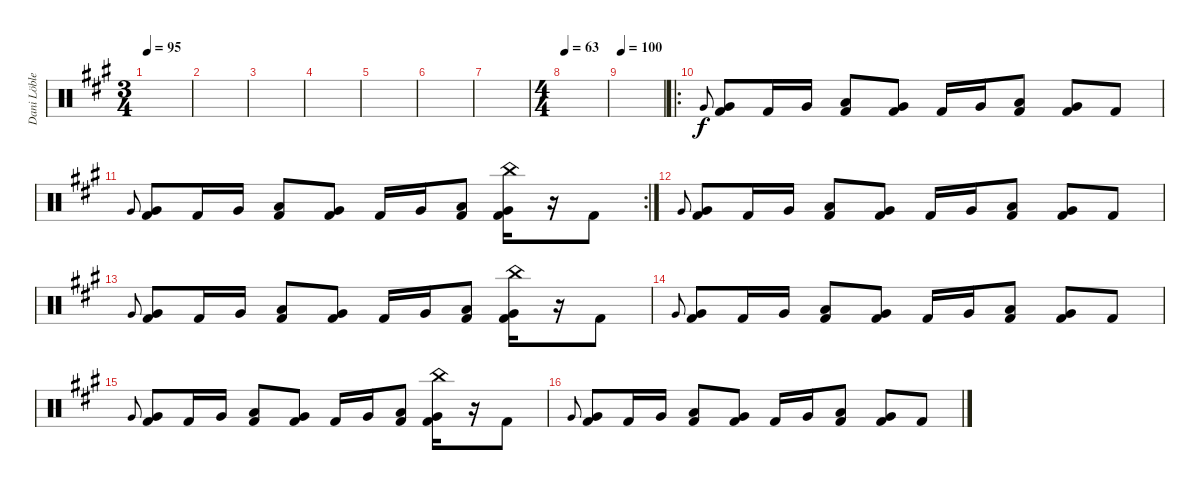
\track ("Dani Löble" "Dani Löble") {instrument percussion}
\staff {score}
\articulation defaults
\ts (3 4)
\tempo 95
\clef neutral
\ks f#minor
|
|
|
|
|
|
|
\ts (4 4)
\tempo 63
|
\tempo 100
|
\ro "Very Low Tom (hit)".8{gr onbeat}
("Very Low Tom (hit)" "Kick (hit) 2").8 "Kick (hit) 2".16 "Very Low Tom (hit)".16 ("Low Floor Tom (hit)" "Kick (hit) 2").8 ("Very Low Tom (hit)" "Kick (hit) 2").8 "Kick (hit) 2".16 "Very Low Tom (hit)".16 ("Low Floor Tom (hit)" "Kick (hit) 2").8 ("Very Low Tom (hit)" "Kick (hit) 2").8 "Kick (hit) 2".8 |
\rc 2 "Very Low Tom (hit)".8{gr onbeat}
("Very Low Tom (hit)" "Kick (hit) 2").8 "Kick (hit) 2".16 "Very Low Tom (hit)".16 ("Low Floor Tom (hit)" "Kick (hit) 2").8 ("Very Low Tom (hit)" "Kick (hit) 2").8 "Kick (hit) 2".16 "Very Low Tom (hit)".16 ("Low Floor Tom (hit)" "Kick (hit) 2").8 ("China (hit)" "Very Low Tom (hit)" "Kick (hit) 2").16 r.16 "Kick (hit) 2".8 |
"Very Low Tom (hit)".8{gr onbeat} ("Very Low Tom (hit)" "Kick (hit) 2").8 "Kick (hit) 2".16 "Very Low Tom (hit)".16 ("Low Floor Tom (hit)" "Kick (hit) 2").8 ("Very Low Tom (hit)" "Kick (hit) 2").8 "Kick (hit) 2".16 "Very Low Tom (hit)".16 ("Low Floor Tom (hit)" "Kick (hit) 2").8 ("Very Low Tom (hit)" "Kick (hit) 2").8 "Kick (hit) 2".8 |
"Very Low Tom (hit)".8{gr onbeat} ("Very Low Tom (hit)" "Kick (hit) 2").8 "Kick (hit) 2".16 "Very Low Tom (hit)".16 ("Low Floor Tom (hit)" "Kick (hit) 2").8 ("Very Low Tom (hit)" "Kick (hit) 2").8 "Kick (hit) 2".16 "Very Low Tom (hit)".16 ("Low Floor Tom (hit)" "Kick (hit) 2").8 ("China (hit)" "Very Low Tom (hit)" "Kick (hit) 2").16 r.16 "Kick (hit) 2".8 |
"Very Low Tom (hit)".8{gr onbeat} ("Very Low Tom (hit)" "Kick (hit) 2").8 "Kick (hit) 2".16 "Very Low Tom (hit)".16 ("Low Floor Tom (hit)" "Kick (hit) 2").8 ("Very Low Tom (hit)" "Kick (hit) 2").8 "Kick (hit) 2".16 "Very Low Tom (hit)".16 ("Low Floor Tom (hit)" "Kick (hit) 2").8 ("Very Low Tom (hit)" "Kick (hit) 2").8 "Kick (hit) 2".8 |
"Very Low Tom (hit)".8{gr onbeat} ("Very Low Tom (hit)" "Kick (hit) 2").8 "Kick (hit) 2".16 "Very Low Tom (hit)".16 ("Low Floor Tom (hit)" "Kick (hit) 2").8 ("Very Low Tom (hit)" "Kick (hit) 2").8 "Kick (hit) 2".16 "Very Low Tom (hit)".16 ("Low Floor Tom (hit)" "Kick (hit) 2").8 ("China (hit)" "Very Low Tom (hit)" "Kick (hit) 2").16 r.16 "Kick (hit) 2".8 |
"Very Low Tom (hit)".8{gr onbeat} ("Very Low Tom (hit)" "Kick (hit) 2").8 "Kick (hit) 2".16 "Very Low Tom (hit)".16 ("Low Floor Tom (hit)" "Kick (hit) 2").8 ("Very Low Tom (hit)" "Kick (hit) 2").8 "Kick (hit) 2".16 "Very Low Tom (hit)".16 ("Low Floor Tom (hit)" "Kick (hit) 2").8 ("Very Low Tom (hit)" "Kick (hit) 2").8 "Kick (hit) 2".8
